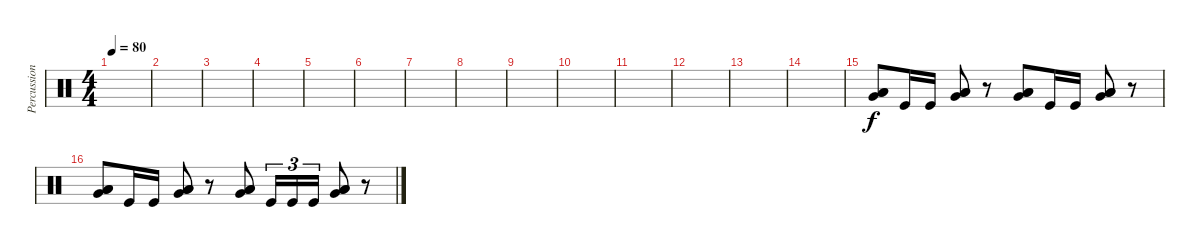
\track ("Percussion" "Percussion") {instrument percussion}
\staff {score}
\articulation defaults
\ts (4 4)
\tempo 80
\clef neutral
\ks c
|
|
|
|
|
|
|
|
|
|
|
|
|
|
("Low Floor Tom (hit)" "Very Low Tom (hit)" "Low Floor Tom (hit)").8{bd 60} "Kick (hit)".16 "Kick (hit)".16 ("Low Floor Tom (hit)" "Very Low Tom (hit)" "Low Floor Tom (hit)").8{bd 60} r.8 ("Low Floor Tom (hit)" "Very Low Tom (hit)" "Low Floor Tom (hit)").8{bd 60} "Kick (hit)".16 "Kick (hit)".16 ("Low Floor Tom (hit)" "Very Low Tom (hit)" "Low Floor Tom (hit)").8{bd 60} r.8 |
("Low Floor Tom (hit)" "Very Low Tom (hit)" "Low Floor Tom (hit)").8{bd 60} "Kick (hit)".16 "Kick (hit)".16 ("Low Floor Tom (hit)" "Very Low Tom (hit)" "Low Floor Tom (hit)").8{bd 60} r.8 ("Low Floor Tom (hit)" "Very Low Tom (hit)" "Low Floor Tom (hit)").8{bd 60} "Kick (hit)".16{tu (3 2)} "Kick (hit)".16{tu (3 2)} "Kick (hit)".16{tu (3 2)} ("Low Floor Tom (hit)" "Very Low Tom (hit)" "Low Floor Tom (hit)").8{bd 60} r.8
